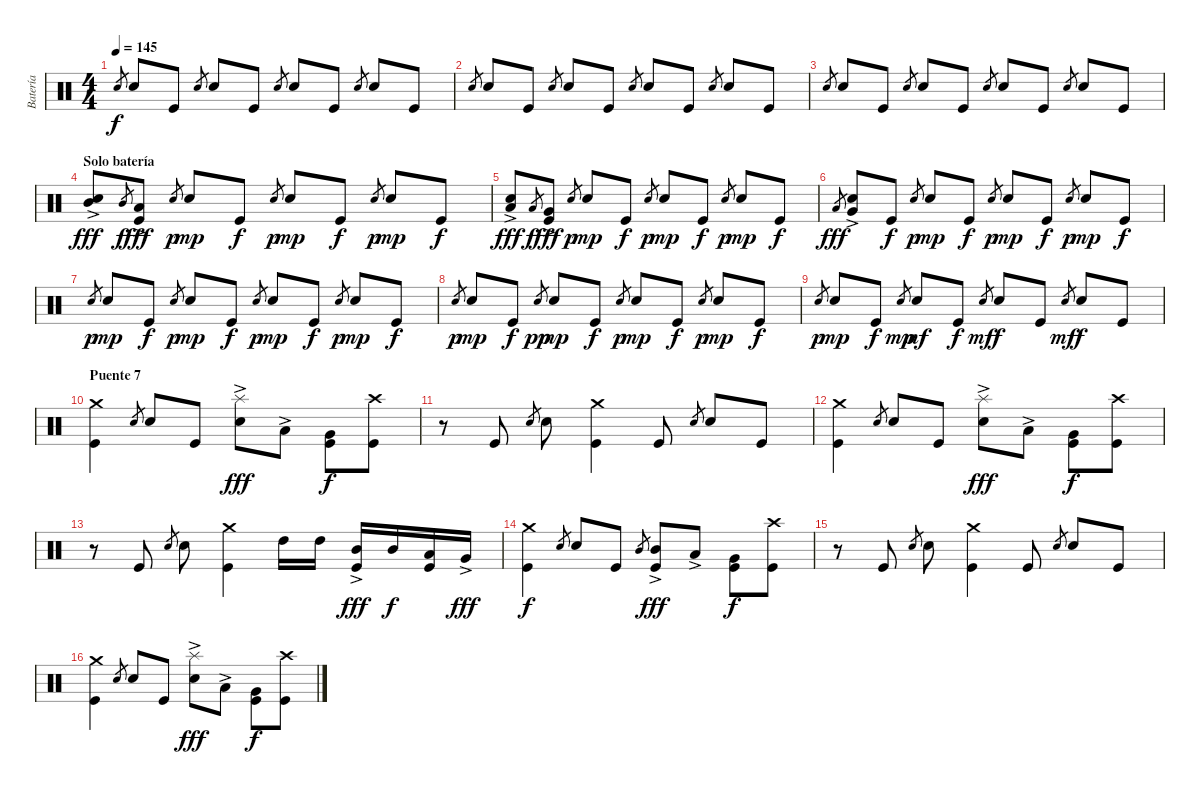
\track ("Batería" "Batería") {instrument percussion}
\staff {score}
\articulation defaults
\ts (4 4)
\tempo 145
\clef neutral
\ks c "Electric Snare (hit)".8{gr dy f} "Electric Snare (hit)".8 "Kick (hit)".8 "Electric Snare (hit)".8{gr} "Electric Snare (hit)".8 "Kick (hit)".8 "Electric Snare (hit)".8{gr} "Electric Snare (hit)".8 "Kick (hit)".8 "Electric Snare (hit)".8{gr} "Electric Snare (hit)".8 "Kick (hit)".8
|
"Electric Snare (hit)".8{gr} "Electric Snare (hit)".8 "Kick (hit)".8 "Electric Snare (hit)".8{gr} "Electric Snare (hit)".8 "Kick (hit)".8 "Electric Snare (hit)".8{gr} "Electric Snare (hit)".8 "Kick (hit)".8 "Electric Snare (hit)".8{gr} "Electric Snare (hit)".8 "Kick (hit)".8 |
"Electric Snare (hit)".8{gr} "Electric Snare (hit)".8 "Kick (hit)".8 "Electric Snare (hit)".8{gr} "Electric Snare (hit)".8 "Kick (hit)".8 "Electric Snare (hit)".8{gr} "Electric Snare (hit)".8 "Kick (hit)".8 "Electric Snare (hit)".8{gr} "Electric Snare (hit)".8 "Kick (hit)".8 |
\section ("" "Solo batería")
("Electric Snare (hit)" "Mid Tom (hit)"{ac}).8{dy fff} "Mid Tom (hit)".8{gr dy f} ("Kick (hit)" "Low Tom (hit)"{ac}).8{dy fff} "Electric Snare (hit)".8{gr dy p} "Electric Snare (hit)".8{dy mp} "Kick (hit)".8{dy f} "Electric Snare (hit)".8{gr dy p} "Electric Snare (hit)".8{dy mp} "Kick (hit)".8{dy f} "Electric Snare (hit)".8{gr dy p} "Electric Snare (hit)".8{dy mp} "Kick (hit)".8{dy f} |
("Electric Snare (hit)" "Low Tom (hit)"{ac}).8{dy fff} "Low Tom (hit)".8{gr dy f} ("Kick (hit)" "Very Low Tom (hit)"{ac}).8{dy fff} "Electric Snare (hit)".8{gr dy p} "Electric Snare (hit)".8{dy mp} "Kick (hit)".8{dy f} "Electric Snare (hit)".8{gr dy p} "Electric Snare (hit)".8{dy mp} "Kick (hit)".8{dy f} "Electric Snare (hit)".8{gr dy p} "Electric Snare (hit)".8{dy mp} "Kick (hit)".8{dy f} |
"Low Tom (hit)".8{gr dy fff} ("Electric Snare (hit)" "Very Low Tom (hit)"{ac}).8 "Kick (hit)".8{dy f} "Electric Snare (hit)".8{gr dy p} "Electric Snare (hit)".8{dy mp} "Kick (hit)".8{dy f} "Electric Snare (hit)".8{gr dy p} "Electric Snare (hit)".8{dy mp} "Kick (hit)".8{dy f} "Electric Snare (hit)".8{gr dy p} "Electric Snare (hit)".8{dy mp} "Kick (hit)".8{dy f} |
"Electric Snare (hit)".8{gr dy p} "Electric Snare (hit)".8{dy mp} "Kick (hit)".8{dy f} "Electric Snare (hit)".8{gr dy p} "Electric Snare (hit)".8{dy mp} "Kick (hit)".8{dy f} "Electric Snare (hit)".8{gr dy p} "Electric Snare (hit)".8{dy mp} "Kick (hit)".8{dy f} "Electric Snare (hit)".8{gr dy p} "Electric Snare (hit)".8{dy mp} "Kick (hit)".8{dy f} |
"Electric Snare (hit)".8{gr dy p} "Electric Snare (hit)".8{dy mp} "Kick (hit)".8{dy f} "Electric Snare (hit)".8{gr dy pp} "Electric Snare (hit)".8{dy mp} "Kick (hit)".8{dy f} "Electric Snare (hit)".8{gr dy p} "Electric Snare (hit)".8{dy mp} "Kick (hit)".8{dy f} "Electric Snare (hit)".8{gr dy p} "Electric Snare (hit)".8{dy mp} "Kick (hit)".8{dy f} |
"Electric Snare (hit)".8{gr dy p} "Electric Snare (hit)".8{dy mp} "Kick (hit)".8{dy f} "Electric Snare (hit)".8{gr dy mp} "Electric Snare (hit)".8{dy mf} "Kick (hit)".8{dy f} "Electric Snare (hit)".8{gr dy mf} "Electric Snare (hit)".8{dy f} "Kick (hit)".8 "Electric Snare (hit)".8{gr dy mf} "Electric Snare (hit)".8{dy f} "Kick (hit)".8 |
\section ("" "Puente 7")
("Kick (hit)" "Crash medium (hit)").4 "Electric Snare (hit)".8{gr} "Electric Snare (hit)".8 "Kick (hit)".8 ("Electric Snare (hit)" "Splash (hit)"{ac}).8{dy fff} "Low Tom (hit)"{ac}.8 ("Kick (hit)" "Very Low Tom (hit)").8{dy f} ("Kick (hit)" "Crash high (hit)").8 |
r.8 "Kick (hit)".8 "Electric Snare (hit)".8{gr} "Electric Snare (hit)".8 ("Kick (hit)" "Crash medium (hit)").4 "Kick (hit)".8 "Electric Snare (hit)".8{gr} "Electric Snare (hit)".8 "Kick (hit)".8 |
("Kick (hit)" "Crash medium (hit)").4 "Electric Snare (hit)".8{gr} "Electric Snare (hit)".8 "Kick (hit)".8 ("Electric Snare (hit)" "Splash (hit)"{ac}).8{dy fff} "Low Tom (hit)"{ac}.8 ("Kick (hit)" "Very Low Tom (hit)").8{dy f} ("Kick (hit)" "Crash high (hit)").8 |
r.8 "Kick (hit)".8 "Electric Snare (hit)".8{gr} "Electric Snare (hit)".8 ("Kick (hit)" "Crash medium (hit)").4 "High Tom (hit)".16 "High Tom (hit)".16 ("Kick (hit)" "Mid Tom (hit)"{ac}).16{dy fff} "Mid Tom (hit)".16{dy f} ("Kick (hit)" "Low Tom (hit)").16 "Very Low Tom (hit)"{ac}.16{dy fff} |
("Kick (hit)" "Crash medium (hit)").4{dy f} "Electric Snare (hit)".8{gr} "Electric Snare (hit)".8 "Kick (hit)".8 "Mid Tom (hit)".8{gr} ("Kick (hit)" "Mid Tom (hit)"{ac}).8{dy fff} "Low Tom (hit)"{ac}.8 ("Kick (hit)" "Very Low Tom (hit)").8{dy f} ("Kick (hit)" "Crash high (hit)").8 |
r.8 "Kick (hit)".8 "Electric Snare (hit)".8{gr} "Electric Snare (hit)".8 ("Kick (hit)" "Crash medium (hit)").4 "Kick (hit)".8 "Electric Snare (hit)".8{gr} "Electric Snare (hit)".8 "Kick (hit)".8 |
("Kick (hit)" "Crash medium (hit)").4 "Electric Snare (hit)".8{gr} "Electric Snare (hit)".8 "Kick (hit)".8 ("Electric Snare (hit)" "Splash (hit)"{ac}).8{dy fff} "Low Tom (hit)"{ac}.8 ("Kick (hit)" "Very Low Tom (hit)").8{dy f} ("Kick (hit)" "Crash high (hit)").8
